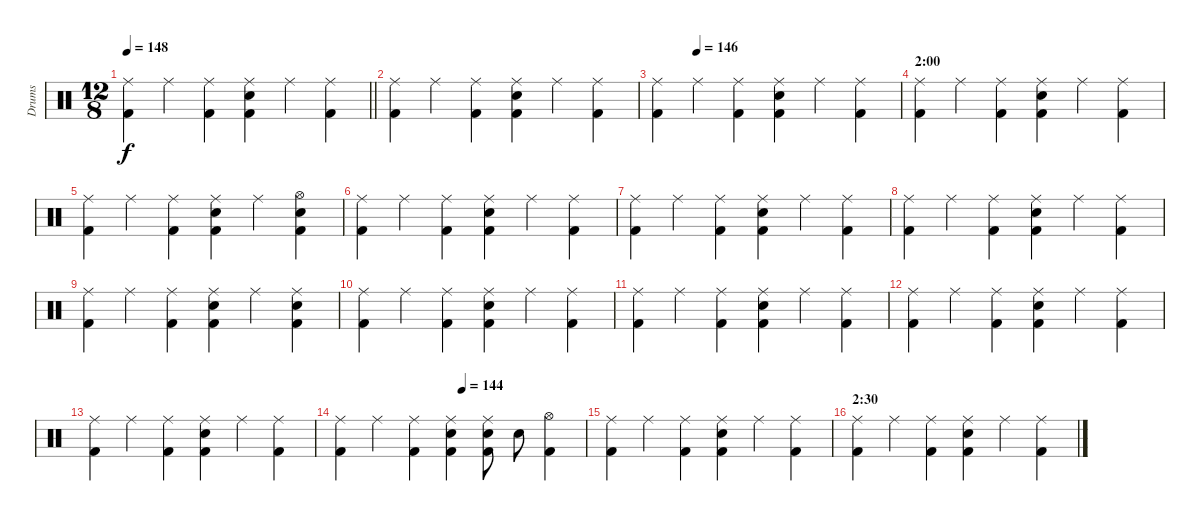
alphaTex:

\track ("Drums" "Drums") {instrument percussion}
\staff {score}
\articulation defaults
\ts (12 8)
\tempo 148
\clef neutral
\barLineRight lightlight
\ks c
("Ride (middle)" "Kick (hit) 2").4{dy f} "Ride (middle)".4 ("Ride (middle)" "Kick (hit) 2").4 ("Ride (middle)" "Snare (hit) 2" "Kick (hit) 2").4 "Ride (middle)".4 ("Ride (middle)" "Kick (hit) 2").4 |
("Ride (middle)" "Kick (hit) 2").4 "Ride (middle)".4 ("Ride (middle)" "Kick (hit) 2").4 ("Ride (middle)" "Snare (hit) 2" "Kick (hit) 2").4 "Ride (middle)".4 ("Ride (middle)" "Kick (hit) 2").4 |
\tempo (146 0.16666666666666666)
("Ride (middle)" "Kick (hit) 2").4 "Ride (middle)".4 ("Ride (middle)" "Kick (hit) 2").4 ("Ride (middle)" "Snare (hit) 2" "Kick (hit) 2").4 "Ride (middle)".4 ("Ride (middle)" "Kick (hit) 2").4 |
\section ("" "2:00")
("Ride (middle)" "Kick (hit) 2").4 "Ride (middle)".4 ("Ride (middle)" "Kick (hit) 2").4 ("Ride (middle)" "Snare (hit) 2" "Kick (hit) 2").4 "Ride (middle)".4 ("Ride (middle)" "Kick (hit) 2").4 |
("Ride (middle)" "Kick (hit) 2").4 "Ride (middle)".4 ("Ride (middle)" "Kick (hit) 2").4 ("Ride (middle)" "Snare (hit) 2" "Kick (hit) 2").4 "Ride (middle)".4 ("Hi-Hat (open)" "Snare (hit) 2" "Kick (hit) 2").4 |
("Ride (middle)" "Kick (hit) 2").4 "Ride (middle)".4 ("Ride (middle)" "Kick (hit) 2").4 ("Ride (middle)" "Snare (hit) 2" "Kick (hit) 2").4 "Ride (middle)".4 ("Ride (middle)" "Kick (hit) 2").4 |
("Ride (middle)" "Kick (hit) 2").4 "Ride (middle)".4 ("Ride (middle)" "Kick (hit) 2").4 ("Ride (middle)" "Snare (hit) 2" "Kick (hit) 2").4 "Ride (middle)".4 ("Ride (middle)" "Kick (hit) 2").4 |
("Ride (middle)" "Kick (hit) 2").4 "Ride (middle)".4 ("Ride (middle)" "Kick (hit) 2").4 ("Ride (middle)" "Snare (hit) 2" "Kick (hit) 2").4 "Ride (middle)".4 ("Ride (middle)" "Kick (hit) 2").4 |
("Ride (middle)" "Kick (hit) 2").4 "Ride (middle)".4 ("Ride (middle)" "Kick (hit) 2").4 ("Ride (middle)" "Snare (hit) 2" "Kick (hit) 2").4 "Ride (middle)".4 ("Ride (middle)" "Snare (hit) 2" "Kick (hit) 2").4 |
("Ride (middle)" "Kick (hit) 2").4 "Ride (middle)".4 ("Ride (middle)" "Kick (hit) 2").4 ("Ride (middle)" "Snare (hit) 2" "Kick (hit) 2").4 "Ride (middle)".4 ("Ride (middle)" "Kick (hit) 2").4 |
("Ride (middle)" "Kick (hit) 2").4 "Ride (middle)".4 ("Ride (middle)" "Kick (hit) 2").4 ("Ride (middle)" "Snare (hit) 2" "Kick (hit) 2").4 "Ride (middle)".4 ("Ride (middle)" "Kick (hit) 2").4 |
("Ride (middle)" "Kick (hit) 2").4 "Ride (middle)".4 ("Ride (middle)" "Kick (hit) 2").4 ("Ride (middle)" "Snare (hit) 2" "Kick (hit) 2").4 "Ride (middle)".4 ("Ride (middle)" "Kick (hit) 2").4 |
("Ride (middle)" "Kick (hit) 2").4 "Ride (middle)".4 ("Ride (middle)" "Kick (hit) 2").4 ("Ride (middle)" "Snare (hit) 2" "Kick (hit) 2").4 "Ride (middle)".4 ("Ride (middle)" "Kick (hit) 2").4 |
\tempo (144 0.5)
("Ride (middle)" "Kick (hit) 2").4 "Ride (middle)".4 ("Ride (middle)" "Kick (hit) 2").4 ("Ride (middle)" "Snare (hit) 2" "Kick (hit) 2").4 ("Ride (middle)" "Snare (hit) 2" "Kick (hit) 2").8 "Snare (hit) 2".8 ("Hi-Hat (open)" "Kick (hit) 2").4 |
("Ride (middle)" "Kick (hit) 2").4 "Ride (middle)".4 ("Ride (middle)" "Kick (hit) 2").4 ("Ride (middle)" "Snare (hit) 2" "Kick (hit) 2").4 "Ride (middle)".4 ("Ride (middle)" "Kick (hit) 2").4 |
\section ("" "2:30")
("Ride (middle)" "Kick (hit) 2").4 "Ride (middle)".4 ("Ride (middle)" "Kick (hit) 2").4 ("Ride (middle)" "Snare (hit) 2" "Kick (hit) 2").4 "Ride (middle)".4 ("Ride (middle)" "Kick (hit) 2").4
